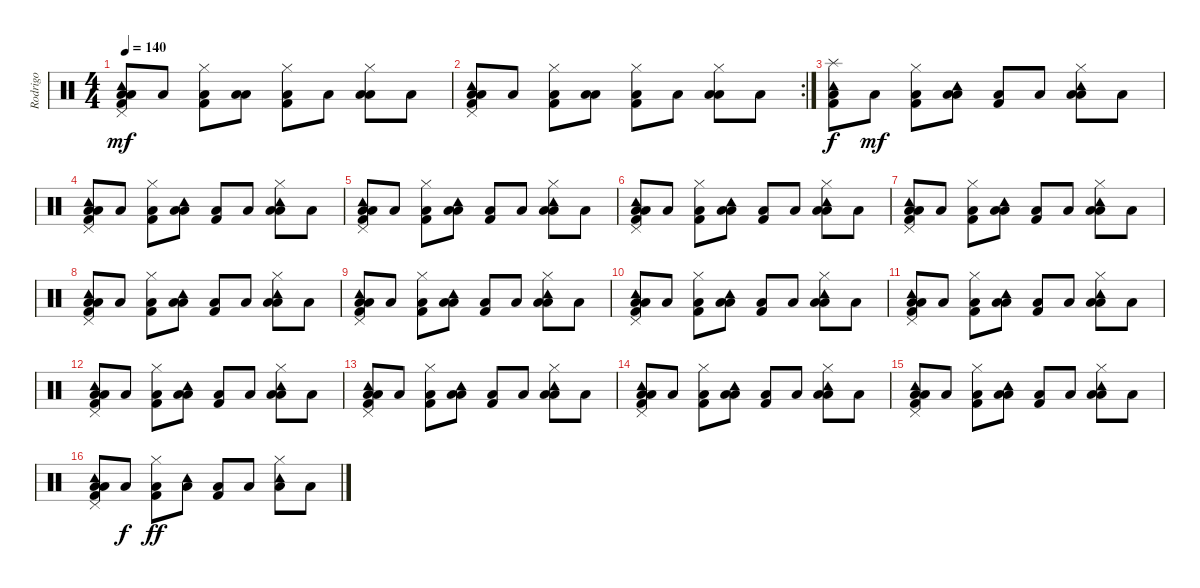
\track ("Rodrigo" "Rodrigo") {instrument percussion}
\staff {score}
\articulation defaults
\ts (4 4)
\tempo 140
\clef neutral
\ks c
("Tambourine (hit)" "Pedal Hi-Hat (hit)" "Low Floor Tom (hit)" "Low Floor Tom (hit)" "Kick (hit) 2").8{dy mf} "Low Floor Tom (hit)".8 ("Hi-Hat (closed)" "Low Floor Tom (hit)" "Kick (hit) 2").8 ("Low Floor Tom (hit)" "Low Floor Tom (hit)").8 ("Hi-Hat (closed)" "Low Floor Tom (hit)" "Kick (hit) 2").8 "Low Floor Tom (hit)".8 ("Hi-Hat (closed)" "Low Floor Tom (hit)" "Low Floor Tom (hit)").8 "Low Floor Tom (hit)".8 |
\rc 2
("Tambourine (hit)" "Pedal Hi-Hat (hit)" "Low Floor Tom (hit)" "Low Floor Tom (hit)" "Kick (hit) 2").8 "Low Floor Tom (hit)".8 ("Hi-Hat (closed)" "Low Floor Tom (hit)" "Kick (hit) 2").8 ("Low Floor Tom (hit)" "Low Floor Tom (hit)").8 ("Hi-Hat (closed)" "Low Floor Tom (hit)" "Kick (hit) 2").8 "Low Floor Tom (hit)".8 ("Hi-Hat (closed)" "Low Floor Tom (hit)" "Low Floor Tom (hit)").8 "Low Floor Tom (hit)".8 |
("Splash (hit)" "Tambourine (hit)" "Low Floor Tom (hit)" "Kick (hit) 2").8{dy f} "Low Floor Tom (hit)".8{dy mf} ("Hi-Hat (closed)" "Low Floor Tom (hit)" "Kick (hit) 2").8 ("Tambourine (hit)" "Low Floor Tom (hit)" "Low Floor Tom (hit)").8 ("Low Floor Tom (hit)" "Kick (hit) 2").8 "Low Floor Tom (hit)".8 ("Hi-Hat (closed)" "Tambourine (hit)" "Low Floor Tom (hit)" "Low Floor Tom (hit)").8 "Low Floor Tom (hit)".8 |
("Tambourine (hit)" "Pedal Hi-Hat (hit)" "Low Floor Tom (hit)" "Low Floor Tom (hit)" "Kick (hit) 2").8 "Low Floor Tom (hit)".8 ("Hi-Hat (closed)" "Low Floor Tom (hit)" "Kick (hit) 2").8 ("Tambourine (hit)" "Low Floor Tom (hit)" "Low Floor Tom (hit)").8 ("Low Floor Tom (hit)" "Kick (hit) 2").8 "Low Floor Tom (hit)".8 ("Hi-Hat (closed)" "Tambourine (hit)" "Low Floor Tom (hit)" "Low Floor Tom (hit)").8 "Low Floor Tom (hit)".8 |
("Tambourine (hit)" "Pedal Hi-Hat (hit)" "Low Floor Tom (hit)" "Low Floor Tom (hit)" "Kick (hit) 2").8 "Low Floor Tom (hit)".8 ("Hi-Hat (closed)" "Low Floor Tom (hit)" "Kick (hit) 2").8 ("Tambourine (hit)" "Low Floor Tom (hit)" "Low Floor Tom (hit)").8 ("Low Floor Tom (hit)" "Kick (hit) 2").8 "Low Floor Tom (hit)".8 ("Hi-Hat (closed)" "Tambourine (hit)" "Low Floor Tom (hit)" "Low Floor Tom (hit)").8 "Low Floor Tom (hit)".8 |
("Tambourine (hit)" "Pedal Hi-Hat (hit)" "Low Floor Tom (hit)" "Low Floor Tom (hit)" "Kick (hit) 2").8 "Low Floor Tom (hit)".8 ("Hi-Hat (closed)" "Low Floor Tom (hit)" "Kick (hit) 2").8 ("Tambourine (hit)" "Low Floor Tom (hit)" "Low Floor Tom (hit)").8 ("Low Floor Tom (hit)" "Kick (hit) 2").8 "Low Floor Tom (hit)".8 ("Hi-Hat (closed)" "Tambourine (hit)" "Low Floor Tom (hit)" "Low Floor Tom (hit)").8 "Low Floor Tom (hit)".8 |
("Tambourine (hit)" "Pedal Hi-Hat (hit)" "Low Floor Tom (hit)" "Low Floor Tom (hit)" "Kick (hit) 2").8 "Low Floor Tom (hit)".8 ("Hi-Hat (closed)" "Low Floor Tom (hit)" "Kick (hit) 2").8 ("Tambourine (hit)" "Low Floor Tom (hit)" "Low Floor Tom (hit)").8 ("Low Floor Tom (hit)" "Kick (hit) 2").8 "Low Floor Tom (hit)".8 ("Hi-Hat (closed)" "Tambourine (hit)" "Low Floor Tom (hit)" "Low Floor Tom (hit)").8 "Low Floor Tom (hit)".8 |
("Tambourine (hit)" "Pedal Hi-Hat (hit)" "Low Floor Tom (hit)" "Low Floor Tom (hit)" "Kick (hit) 2").8 "Low Floor Tom (hit)".8 ("Hi-Hat (closed)" "Low Floor Tom (hit)" "Kick (hit) 2").8 ("Tambourine (hit)" "Low Floor Tom (hit)" "Low Floor Tom (hit)").8 ("Low Floor Tom (hit)" "Kick (hit) 2").8 "Low Floor Tom (hit)".8 ("Hi-Hat (closed)" "Tambourine (hit)" "Low Floor Tom (hit)" "Low Floor Tom (hit)").8 "Low Floor Tom (hit)".8 |
("Tambourine (hit)" "Pedal Hi-Hat (hit)" "Low Floor Tom (hit)" "Low Floor Tom (hit)" "Kick (hit) 2").8 "Low Floor Tom (hit)".8 ("Hi-Hat (closed)" "Low Floor Tom (hit)" "Kick (hit) 2").8 ("Tambourine (hit)" "Low Floor Tom (hit)" "Low Floor Tom (hit)").8 ("Low Floor Tom (hit)" "Kick (hit) 2").8 "Low Floor Tom (hit)".8 ("Hi-Hat (closed)" "Tambourine (hit)" "Low Floor Tom (hit)" "Low Floor Tom (hit)").8 "Low Floor Tom (hit)".8 |
("Tambourine (hit)" "Pedal Hi-Hat (hit)" "Low Floor Tom (hit)" "Low Floor Tom (hit)" "Kick (hit) 2").8 "Low Floor Tom (hit)".8 ("Hi-Hat (closed)" "Low Floor Tom (hit)" "Kick (hit) 2").8 ("Tambourine (hit)" "Low Floor Tom (hit)" "Low Floor Tom (hit)").8 ("Low Floor Tom (hit)" "Kick (hit) 2").8 "Low Floor Tom (hit)".8 ("Hi-Hat (closed)" "Tambourine (hit)" "Low Floor Tom (hit)" "Low Floor Tom (hit)").8 "Low Floor Tom (hit)".8 |
("Tambourine (hit)" "Pedal Hi-Hat (hit)" "Low Floor Tom (hit)" "Low Floor Tom (hit)" "Kick (hit) 2").8 "Low Floor Tom (hit)".8 ("Hi-Hat (closed)" "Low Floor Tom (hit)" "Kick (hit) 2").8 ("Tambourine (hit)" "Low Floor Tom (hit)" "Low Floor Tom (hit)").8 ("Low Floor Tom (hit)" "Kick (hit) 2").8 "Low Floor Tom (hit)".8 ("Hi-Hat (closed)" "Tambourine (hit)" "Low Floor Tom (hit)" "Low Floor Tom (hit)").8 "Low Floor Tom (hit)".8 |
("Tambourine (hit)" "Pedal Hi-Hat (hit)" "Low Floor Tom (hit)" "Low Floor Tom (hit)" "Kick (hit) 2").8 "Low Floor Tom (hit)".8 ("Hi-Hat (closed)" "Low Floor Tom (hit)" "Kick (hit) 2").8 ("Tambourine (hit)" "Low Floor Tom (hit)" "Low Floor Tom (hit)").8 ("Low Floor Tom (hit)" "Kick (hit) 2").8 "Low Floor Tom (hit)".8 ("Hi-Hat (closed)" "Tambourine (hit)" "Low Floor Tom (hit)" "Low Floor Tom (hit)").8 "Low Floor Tom (hit)".8 |
("Tambourine (hit)" "Pedal Hi-Hat (hit)" "Low Floor Tom (hit)" "Low Floor Tom (hit)" "Kick (hit) 2").8 "Low Floor Tom (hit)".8 ("Hi-Hat (closed)" "Low Floor Tom (hit)" "Kick (hit) 2").8 ("Tambourine (hit)" "Low Floor Tom (hit)" "Low Floor Tom (hit)").8 ("Low Floor Tom (hit)" "Kick (hit) 2").8 "Low Floor Tom (hit)".8 ("Hi-Hat (closed)" "Tambourine (hit)" "Low Floor Tom (hit)" "Low Floor Tom (hit)").8 "Low Floor Tom (hit)".8 |
("Tambourine (hit)" "Pedal Hi-Hat (hit)" "Low Floor Tom (hit)" "Low Floor Tom (hit)" "Kick (hit) 2").8 "Low Floor Tom (hit)".8 ("Hi-Hat (closed)" "Low Floor Tom (hit)" "Kick (hit) 2").8 ("Tambourine (hit)" "Low Floor Tom (hit)" "Low Floor Tom (hit)").8 ("Low Floor Tom (hit)" "Kick (hit) 2").8 "Low Floor Tom (hit)".8 ("Hi-Hat (closed)" "Tambourine (hit)" "Low Floor Tom (hit)" "Low Floor Tom (hit)").8 "Low Floor Tom (hit)".8 |
("Tambourine (hit)" "Pedal Hi-Hat (hit)" "Low Floor Tom (hit)" "Low Floor Tom (hit)" "Kick (hit) 2").8 "Low Floor Tom (hit)".8 ("Hi-Hat (closed)" "Low Floor Tom (hit)" "Kick (hit) 2").8 ("Tambourine (hit)" "Low Floor Tom (hit)" "Low Floor Tom (hit)").8 ("Low Floor Tom (hit)" "Kick (hit) 2").8 "Low Floor Tom (hit)".8 ("Hi-Hat (closed)" "Tambourine (hit)" "Low Floor Tom (hit)" "Low Floor Tom (hit)").8 "Low Floor Tom (hit)".8 |
("Tambourine (hit)" "Pedal Hi-Hat (hit)" "Low Floor Tom (hit)" "Low Floor Tom (hit)" "Kick (hit) 2").8 "Low Floor Tom (hit)".8{dy f} ("Hi-Hat (closed)" "Low Floor Tom (hit)" "Kick (hit) 2").8{dy ff} ("Tambourine (hit)" "Low Floor Tom (hit)").8 ("Low Floor Tom (hit)" "Kick (hit) 2").8 "Low Floor Tom (hit)".8 ("Hi-Hat (closed)" "Tambourine (hit)" "Low Floor Tom (hit)").8 "Low Floor Tom (hit)".8
